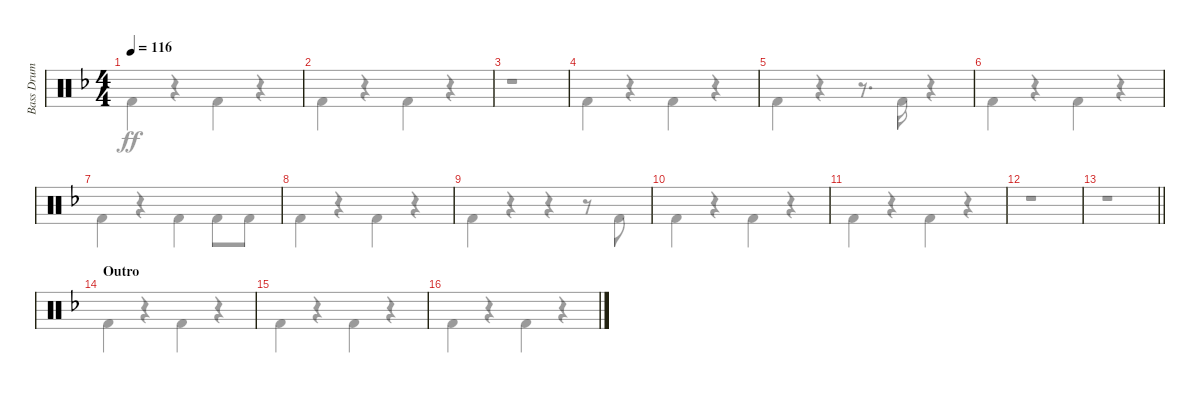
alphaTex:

\track ("Bass Drum" "Bass Drum") {instrument percussion}
\staff {score}
\articulation defaults
\voice
\ts (4 4)
\tempo 116
\clef neutral
\ks f
|
|
|
|
|
|
|
|
|
|
|
|
\barLineRight lightlight
|
\section ("" "Outro")
|
|
\voice
\clef neutral
\ks f "Kick (hit) 2".4{dy ff}
r.4 "Kick (hit) 2".4 r.4 |
"Kick (hit) 2".4 r.4 "Kick (hit) 2".4 r.4 |
r.1 |
"Kick (hit) 2".4 r.4 "Kick (hit) 2".4 r.4 |
"Kick (hit) 2".4 r.4 r.8{d} "Kick (hit) 2".16 r.4 |
"Kick (hit) 2".4 r.4 "Kick (hit) 2".4 r.4 |
"Kick (hit) 2".4 r.4 "Kick (hit) 2".4 "Kick (hit) 2".8 "Kick (hit) 2".8 |
"Kick (hit) 2".4 r.4 "Kick (hit) 2".4 r.4 |
"Kick (hit) 2".4 r.4 r.4 r.8 "Kick (hit) 2".8 |
"Kick (hit) 2".4 r.4 "Kick (hit) 2".4 r.4 |
"Kick (hit) 2".4 r.4 "Kick (hit) 2".4 r.4 |
r.1 |
\barLineRight lightlight
r.1 |
"Kick (hit) 2".4 r.4 "Kick (hit) 2".4 r.4 |
"Kick (hit) 2".4 r.4 "Kick (hit) 2".4 r.4 |
"Kick (hit) 2".4 r.4 "Kick (hit) 2".4 r.4
